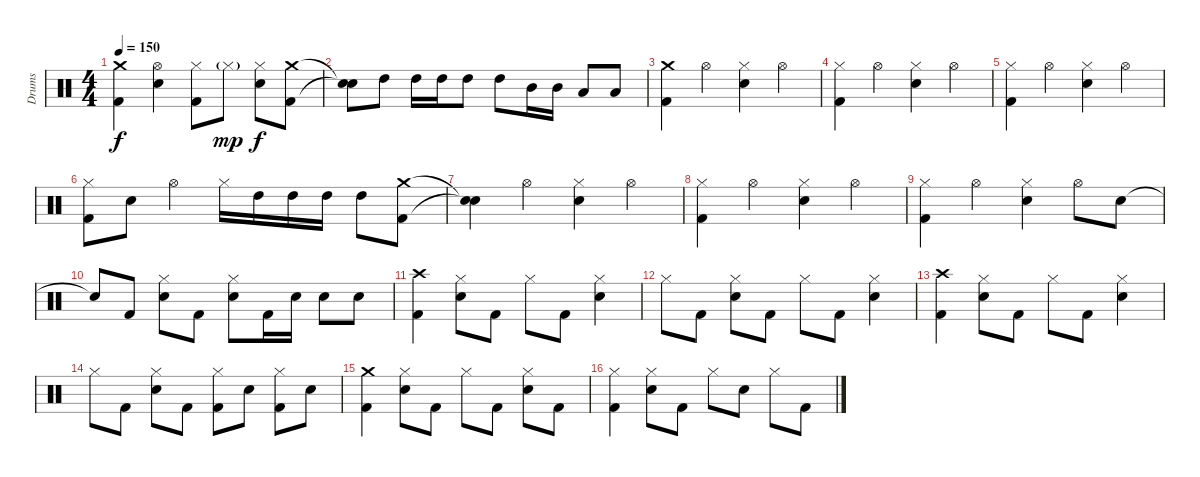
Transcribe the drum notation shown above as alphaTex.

\track ("Drums" "Drums") {instrument percussion}
\staff {score}
\articulation defaults
\ts (4 4)
\tempo 150
\clef neutral
\ks c
("Crash medium (hit)" "Kick (hit) 2").4{dy f} ("Hi-Hat (open)" "Electric Snare (hit)").4 ("Hi-Hat (closed)" "Kick (hit) 2").8 "Hi-Hat (closed)"{g}.8{dy mp} ("Hi-Hat (closed)" "Electric Snare (hit)").8{dy f} ("Crash medium (hit)" "Kick (hit) 2").8 |
("Snare (hit)"{t} "Snare (hit)"{t}).8 "High Tom (hit)".8 "High Tom (hit)".16 "High Tom (hit)".16 "High Tom (hit)".8 "High Tom (hit)".8 "Mid Tom (hit)".16 "Mid Tom (hit)".16 "Low Tom (hit)".8 "Low Tom (hit)".8 |
("Crash medium (hit)" "Kick (hit) 2").4 "Hi-Hat (open)".4 ("Hi-Hat (closed)" "Electric Snare (hit)").4 "Hi-Hat (open)".4 |
("Hi-Hat (closed)" "Kick (hit) 2").4 "Hi-Hat (open)".4 ("Hi-Hat (closed)" "Electric Snare (hit)").4 "Hi-Hat (open)".4 |
("Hi-Hat (closed)" "Kick (hit) 2").4 "Hi-Hat (open)".4 ("Hi-Hat (closed)" "Electric Snare (hit)").4 "Hi-Hat (open)".4 |
("Hi-Hat (closed)" "Kick (hit) 2").8 "Electric Snare (hit)".8 "Hi-Hat (open)".4 "Hi-Hat (closed)".16 "High Tom (hit)".16 "High Tom (hit)".16 "High Tom (hit)".16 "High Tom (hit)".8 ("Crash medium (hit)" "Kick (hit) 2").8 |
("Snare (hit)"{t} "Snare (hit)"{t}).4 "Hi-Hat (open)".4 ("Hi-Hat (closed)" "Electric Snare (hit)").4 "Hi-Hat (open)".4 |
("Hi-Hat (closed)" "Kick (hit) 2").4 "Hi-Hat (open)".4 ("Hi-Hat (closed)" "Electric Snare (hit)").4 "Hi-Hat (open)".4 |
("Hi-Hat (closed)" "Kick (hit) 2").4 "Hi-Hat (open)".4 ("Hi-Hat (closed)" "Electric Snare (hit)").4 "Hi-Hat (open)".8 "Electric Snare (hit)".8 |
"Snare (hit)"{t}.8 "Kick (hit) 2".8 ("Electric Snare (hit)" "Hi-Hat (closed)").8 "Kick (hit) 2".8 ("Electric Snare (hit)" "Hi-Hat (closed)").8 "Kick (hit) 2".16 "Electric Snare (hit)".16 "Electric Snare (hit)".8 "Electric Snare (hit)".8 |
("Crash high (hit)" "Kick (hit) 2").4 ("Hi-Hat (closed)" "Electric Snare (hit)").8 "Kick (hit) 2".8 "Hi-Hat (closed)".8 "Kick (hit) 2".8 ("Hi-Hat (closed)" "Electric Snare (hit)").4 |
"Hi-Hat (closed)".8 "Kick (hit) 2".8 ("Hi-Hat (closed)" "Electric Snare (hit)").8 "Kick (hit) 2".8 "Hi-Hat (closed)".8 "Kick (hit) 2".8 ("Hi-Hat (closed)" "Electric Snare (hit)").4 |
("Crash high (hit)" "Kick (hit) 2").4 ("Hi-Hat (closed)" "Electric Snare (hit)").8 "Kick (hit) 2".8 "Hi-Hat (closed)".8 "Kick (hit) 2".8 ("Hi-Hat (closed)" "Electric Snare (hit)").4 |
"Hi-Hat (closed)".8 "Kick (hit) 2".8 ("Hi-Hat (closed)" "Electric Snare (hit)").8 "Kick (hit) 2".8 ("Hi-Hat (closed)" "Kick (hit) 2").8 "Electric Snare (hit)".8 ("Hi-Hat (closed)" "Kick (hit) 2").8 "Electric Snare (hit)".8 |
("Crash medium (hit)" "Kick (hit) 2").4 ("Hi-Hat (closed)" "Electric Snare (hit)").8 "Kick (hit) 2".8 "Hi-Hat (closed)".8 "Kick (hit) 2".8 ("Hi-Hat (closed)" "Electric Snare (hit)").8 "Kick (hit) 2".8 |
("Hi-Hat (closed)" "Kick (hit) 2").4 ("Hi-Hat (closed)" "Electric Snare (hit)").8 "Kick (hit) 2".8 "Hi-Hat (closed)".8 "Electric Snare (hit)".8 "Hi-Hat (closed)".8 "Kick (hit) 2".8
